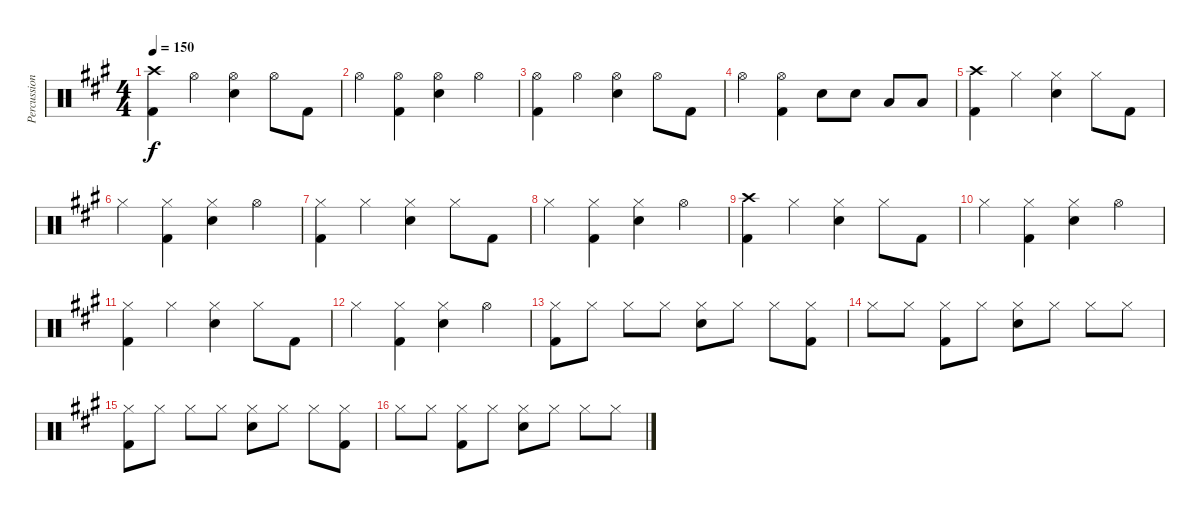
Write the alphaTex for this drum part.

\track ("Percussion" "Percussion") {instrument percussion}
\staff {score}
\articulation defaults
\ts (4 4)
\tempo 150
\clef neutral
\ks a
("Kick (hit) 2" "Crash high (hit)").4{dy f} "Hi-Hat (open)".4 ("Snare (hit) 2" "Hi-Hat (open)").4 "Hi-Hat (open)".8 "Kick (hit) 2".8 |
"Hi-Hat (open)".4 ("Kick (hit) 2" "Hi-Hat (open)").4 ("Snare (hit) 2" "Hi-Hat (open)").4 "Hi-Hat (open)".4 |
("Kick (hit) 2" "Hi-Hat (open)").4 "Hi-Hat (open)".4 ("Snare (hit) 2" "Hi-Hat (open)").4 "Hi-Hat (open)".8 "Kick (hit) 2".8 |
"Hi-Hat (open)".4 ("Kick (hit) 2" "Hi-Hat (open)").4 "Snare (hit) 2".8 "Snare (hit) 2".8 "Low Tom (hit)".8 "Low Tom (hit)".8 |
("Kick (hit) 2" "Crash high (hit)").4 "Hi-Hat (closed)".4 ("Snare (hit) 2" "Hi-Hat (closed)").4 "Hi-Hat (closed)".8 "Kick (hit) 2".8 |
"Hi-Hat (closed)".4 ("Kick (hit) 2" "Hi-Hat (closed)").4 ("Snare (hit) 2" "Hi-Hat (closed)").4 "Hi-Hat (open)".4 |
("Kick (hit) 2" "Hi-Hat (closed)").4 "Hi-Hat (closed)".4 ("Snare (hit) 2" "Hi-Hat (closed)").4 "Hi-Hat (closed)".8 "Kick (hit) 2".8 |
"Hi-Hat (closed)".4 ("Kick (hit) 2" "Hi-Hat (closed)").4 ("Snare (hit) 2" "Hi-Hat (closed)").4 "Hi-Hat (open)".4 |
("Kick (hit) 2" "Crash high (hit)").4 "Hi-Hat (closed)".4 ("Snare (hit) 2" "Hi-Hat (closed)").4 "Hi-Hat (closed)".8 "Kick (hit) 2".8 |
"Hi-Hat (closed)".4 ("Kick (hit) 2" "Hi-Hat (closed)").4 ("Snare (hit) 2" "Hi-Hat (closed)").4 "Hi-Hat (open)".4 |
("Kick (hit) 2" "Hi-Hat (closed)").4 "Hi-Hat (closed)".4 ("Snare (hit) 2" "Hi-Hat (closed)").4 "Hi-Hat (closed)".8 "Kick (hit) 2".8 |
"Hi-Hat (closed)".4 ("Kick (hit) 2" "Hi-Hat (closed)").4 ("Snare (hit) 2" "Hi-Hat (closed)").4 "Hi-Hat (open)".4 |
("Kick (hit) 2" "Hi-Hat (closed)").8 "Hi-Hat (closed)".8 "Hi-Hat (closed)".8 "Hi-Hat (closed)".8 ("Snare (hit) 2" "Hi-Hat (closed)").8 "Hi-Hat (closed)".8 "Hi-Hat (closed)".8 ("Kick (hit) 2" "Hi-Hat (closed)").8 |
"Hi-Hat (closed)".8 "Hi-Hat (closed)".8 ("Kick (hit) 2" "Hi-Hat (closed)").8 "Hi-Hat (closed)".8 ("Snare (hit) 2" "Hi-Hat (closed)").8 "Hi-Hat (closed)".8 "Hi-Hat (closed)".8 "Hi-Hat (closed)".8 |
("Kick (hit) 2" "Hi-Hat (closed)").8 "Hi-Hat (closed)".8 "Hi-Hat (closed)".8 "Hi-Hat (closed)".8 ("Snare (hit) 2" "Hi-Hat (closed)").8 "Hi-Hat (closed)".8 "Hi-Hat (closed)".8 ("Kick (hit) 2" "Hi-Hat (closed)").8 |
"Hi-Hat (closed)".8 "Hi-Hat (closed)".8 ("Kick (hit) 2" "Hi-Hat (closed)").8 "Hi-Hat (closed)".8 ("Snare (hit) 2" "Hi-Hat (closed)").8 "Hi-Hat (closed)".8 "Hi-Hat (closed)".8 "Hi-Hat (closed)".8
